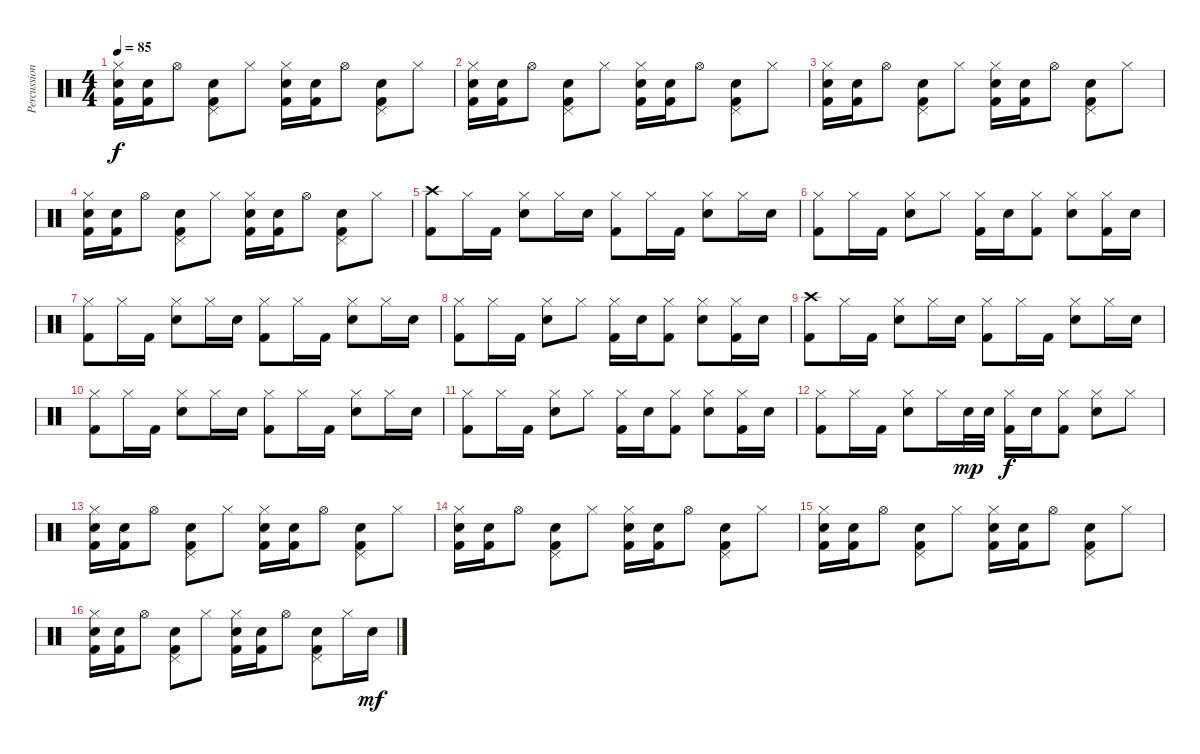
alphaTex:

\track ("Percussion" "Percussion") {instrument percussion}
\staff {score}
\articulation defaults
\ts (4 4)
\tempo 85
\clef neutral
\ks c
("Hi-Hat (closed)" "Electric Snare (hit)" "Kick (hit) 2").16{dy f} ("Electric Snare (hit)" "Kick (hit) 2").16 "Hi-Hat (open)".8 ("Pedal Hi-Hat (hit)" "Electric Snare (hit)" "Kick (hit) 2").8 "Hi-Hat (closed)".8 ("Hi-Hat (closed)" "Electric Snare (hit)" "Kick (hit) 2").16 ("Electric Snare (hit)" "Kick (hit) 2").16 "Hi-Hat (open)".8 ("Pedal Hi-Hat (hit)" "Electric Snare (hit)" "Kick (hit) 2").8 "Hi-Hat (closed)".8 |
("Hi-Hat (closed)" "Electric Snare (hit)" "Kick (hit) 2").16 ("Electric Snare (hit)" "Kick (hit) 2").16 "Hi-Hat (open)".8 ("Pedal Hi-Hat (hit)" "Electric Snare (hit)" "Kick (hit) 2").8 "Hi-Hat (closed)".8 ("Hi-Hat (closed)" "Electric Snare (hit)" "Kick (hit) 2").16 ("Electric Snare (hit)" "Kick (hit) 2").16 "Hi-Hat (open)".8 ("Pedal Hi-Hat (hit)" "Electric Snare (hit)" "Kick (hit) 2").8 "Hi-Hat (closed)".8 |
("Hi-Hat (closed)" "Electric Snare (hit)" "Kick (hit) 2").16 ("Electric Snare (hit)" "Kick (hit) 2").16 "Hi-Hat (open)".8 ("Pedal Hi-Hat (hit)" "Electric Snare (hit)" "Kick (hit) 2").8 "Hi-Hat (closed)".8 ("Hi-Hat (closed)" "Electric Snare (hit)" "Kick (hit) 2").16 ("Electric Snare (hit)" "Kick (hit) 2").16 "Hi-Hat (open)".8 ("Pedal Hi-Hat (hit)" "Electric Snare (hit)" "Kick (hit) 2").8 "Hi-Hat (closed)".8 |
("Hi-Hat (closed)" "Electric Snare (hit)" "Kick (hit) 2").16 ("Electric Snare (hit)" "Kick (hit) 2").16 "Hi-Hat (open)".8 ("Pedal Hi-Hat (hit)" "Electric Snare (hit)" "Kick (hit) 2").8 "Hi-Hat (closed)".8 ("Hi-Hat (closed)" "Electric Snare (hit)" "Kick (hit) 2").16 ("Electric Snare (hit)" "Kick (hit) 2").16 "Hi-Hat (open)".8 ("Pedal Hi-Hat (hit)" "Electric Snare (hit)" "Kick (hit) 2").8 "Hi-Hat (closed)".8 |
("Crash high (hit)" "Kick (hit) 2").8 "Hi-Hat (closed)".16 "Kick (hit) 2".16 ("Hi-Hat (closed)" "Electric Snare (hit)").8 "Hi-Hat (closed)".16 "Electric Snare (hit)".16 ("Hi-Hat (closed)" "Kick (hit) 2").8 "Hi-Hat (closed)".16 "Kick (hit) 2".16 ("Hi-Hat (closed)" "Electric Snare (hit)").8 "Hi-Hat (closed)".16 "Electric Snare (hit)".16 |
("Hi-Hat (closed)" "Kick (hit) 2").8 "Hi-Hat (closed)".16 "Kick (hit) 2".16 ("Hi-Hat (closed)" "Electric Snare (hit)").8 "Hi-Hat (closed)".8 ("Hi-Hat (closed)" "Kick (hit) 2").16 "Electric Snare (hit)".16 ("Hi-Hat (closed)" "Kick (hit) 2").8 ("Hi-Hat (closed)" "Electric Snare (hit)").8 ("Hi-Hat (closed)" "Kick (hit) 2").16 "Electric Snare (hit)".16 |
("Hi-Hat (closed)" "Kick (hit) 2").8 "Hi-Hat (closed)".16 "Kick (hit) 2".16 ("Hi-Hat (closed)" "Electric Snare (hit)").8 "Hi-Hat (closed)".16 "Electric Snare (hit)".16 ("Hi-Hat (closed)" "Kick (hit) 2").8 "Hi-Hat (closed)".16 "Kick (hit) 2".16 ("Hi-Hat (closed)" "Electric Snare (hit)").8 "Hi-Hat (closed)".16 "Electric Snare (hit)".16 |
("Hi-Hat (closed)" "Kick (hit) 2").8 "Hi-Hat (closed)".16 "Kick (hit) 2".16 ("Hi-Hat (closed)" "Electric Snare (hit)").8 "Hi-Hat (closed)".8 ("Hi-Hat (closed)" "Kick (hit) 2").16 "Electric Snare (hit)".16 ("Hi-Hat (closed)" "Kick (hit) 2").8 ("Hi-Hat (closed)" "Electric Snare (hit)").8 ("Hi-Hat (closed)" "Kick (hit) 2").16 "Electric Snare (hit)".16 |
("Crash high (hit)" "Kick (hit) 2").8 "Hi-Hat (closed)".16 "Kick (hit) 2".16 ("Hi-Hat (closed)" "Electric Snare (hit)").8 "Hi-Hat (closed)".16 "Electric Snare (hit)".16 ("Hi-Hat (closed)" "Kick (hit) 2").8 "Hi-Hat (closed)".16 "Kick (hit) 2".16 ("Hi-Hat (closed)" "Electric Snare (hit)").8 "Hi-Hat (closed)".16 "Electric Snare (hit)".16 |
("Hi-Hat (closed)" "Kick (hit) 2").8 "Hi-Hat (closed)".16 "Kick (hit) 2".16 ("Hi-Hat (closed)" "Electric Snare (hit)").8 "Hi-Hat (closed)".16 "Electric Snare (hit)".16 ("Hi-Hat (closed)" "Kick (hit) 2").8 "Hi-Hat (closed)".16 "Kick (hit) 2".16 ("Hi-Hat (closed)" "Electric Snare (hit)").8 "Hi-Hat (closed)".16 "Electric Snare (hit)".16 |
("Hi-Hat (closed)" "Kick (hit) 2").8 "Hi-Hat (closed)".16 "Kick (hit) 2".16 ("Hi-Hat (closed)" "Electric Snare (hit)").8 "Hi-Hat (closed)".8 ("Hi-Hat (closed)" "Kick (hit) 2").16 "Electric Snare (hit)".16 ("Hi-Hat (closed)" "Kick (hit) 2").8 ("Hi-Hat (closed)" "Electric Snare (hit)").8 ("Hi-Hat (closed)" "Kick (hit) 2").16 "Electric Snare (hit)".16 |
("Hi-Hat (closed)" "Kick (hit) 2").8 "Hi-Hat (closed)".16 "Kick (hit) 2".16 ("Hi-Hat (closed)" "Electric Snare (hit)").8 "Hi-Hat (closed)".16 "Electric Snare (hit)".32{dy mp} "Electric Snare (hit)".32 ("Hi-Hat (closed)" "Kick (hit) 2").16{dy f} "Electric Snare (hit)".16 ("Hi-Hat (closed)" "Kick (hit) 2").8 ("Hi-Hat (closed)" "Electric Snare (hit)").8 "Hi-Hat (closed)".8 |
("Hi-Hat (closed)" "Electric Snare (hit)" "Kick (hit) 2").16 ("Electric Snare (hit)" "Kick (hit) 2").16 "Hi-Hat (open)".8 ("Pedal Hi-Hat (hit)" "Electric Snare (hit)" "Kick (hit) 2").8 "Hi-Hat (closed)".8 ("Hi-Hat (closed)" "Electric Snare (hit)" "Kick (hit) 2").16 ("Electric Snare (hit)" "Kick (hit) 2").16 "Hi-Hat (open)".8 ("Pedal Hi-Hat (hit)" "Electric Snare (hit)" "Kick (hit) 2").8 "Hi-Hat (closed)".8 |
("Hi-Hat (closed)" "Electric Snare (hit)" "Kick (hit) 2").16 ("Electric Snare (hit)" "Kick (hit) 2").16 "Hi-Hat (open)".8 ("Pedal Hi-Hat (hit)" "Electric Snare (hit)" "Kick (hit) 2").8 "Hi-Hat (closed)".8 ("Hi-Hat (closed)" "Electric Snare (hit)" "Kick (hit) 2").16 ("Electric Snare (hit)" "Kick (hit) 2").16 "Hi-Hat (open)".8 ("Pedal Hi-Hat (hit)" "Electric Snare (hit)" "Kick (hit) 2").8 "Hi-Hat (closed)".8 |
("Hi-Hat (closed)" "Electric Snare (hit)" "Kick (hit) 2").16 ("Electric Snare (hit)" "Kick (hit) 2").16 "Hi-Hat (open)".8 ("Pedal Hi-Hat (hit)" "Electric Snare (hit)" "Kick (hit) 2").8 "Hi-Hat (closed)".8 ("Hi-Hat (closed)" "Electric Snare (hit)" "Kick (hit) 2").16 ("Electric Snare (hit)" "Kick (hit) 2").16 "Hi-Hat (open)".8 ("Pedal Hi-Hat (hit)" "Electric Snare (hit)" "Kick (hit) 2").8 "Hi-Hat (closed)".8 |
("Hi-Hat (closed)" "Electric Snare (hit)" "Kick (hit) 2").16 ("Electric Snare (hit)" "Kick (hit) 2").16 "Hi-Hat (open)".8 ("Pedal Hi-Hat (hit)" "Electric Snare (hit)" "Kick (hit) 2").8 "Hi-Hat (closed)".8 ("Hi-Hat (closed)" "Electric Snare (hit)" "Kick (hit) 2").16 ("Electric Snare (hit)" "Kick (hit) 2").16 "Hi-Hat (open)".8 ("Pedal Hi-Hat (hit)" "Electric Snare (hit)" "Kick (hit) 2").8 "Hi-Hat (closed)".16 "Electric Snare (hit)".16{dy mf}
